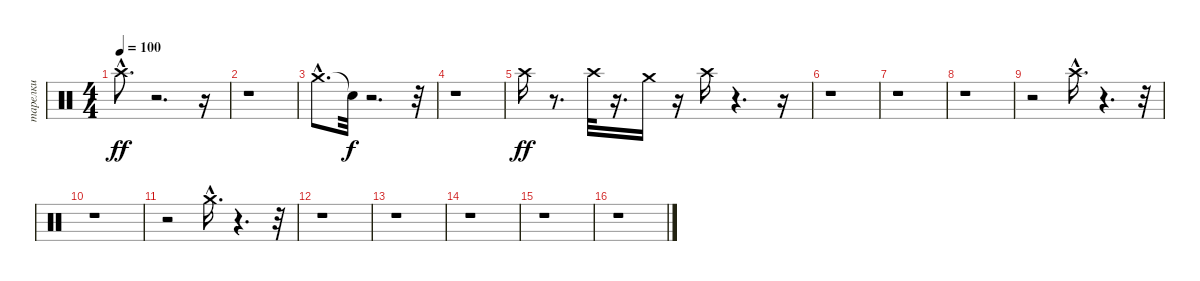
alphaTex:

\track ("тарелки" "тарелки") {instrument percussion}
\staff {score}
\articulation defaults
\ts (4 4)
\tempo 100
\clef neutral
\ks c "Crash high (hit)"{hac}.8{d dy ff}
r.2{d} r.16 |
r.1 |
"Crash medium (hit)"{hac}.8{d} "Snare (hit)"{t}.32{dy f} r.2{d} r.32 |
r.1 |
"Crash high (hit)".16{dy ff} r.8{d} "Crash high (hit)".32 r.16{d} "Crash medium (hit)".16 r.16 "Crash high (hit)".16 r.4{d} r.16 |
r.1 |
r.1 |
r.1 |
r.2 "Crash high (hit)"{hac}.16{d} r.4{d} r.32 |
r.1 |
r.2 "Crash medium (hit)"{hac}.16{d} r.4{d} r.32 |
r.1 |
r.1 |
r.1 |
r.1 |
r.1
